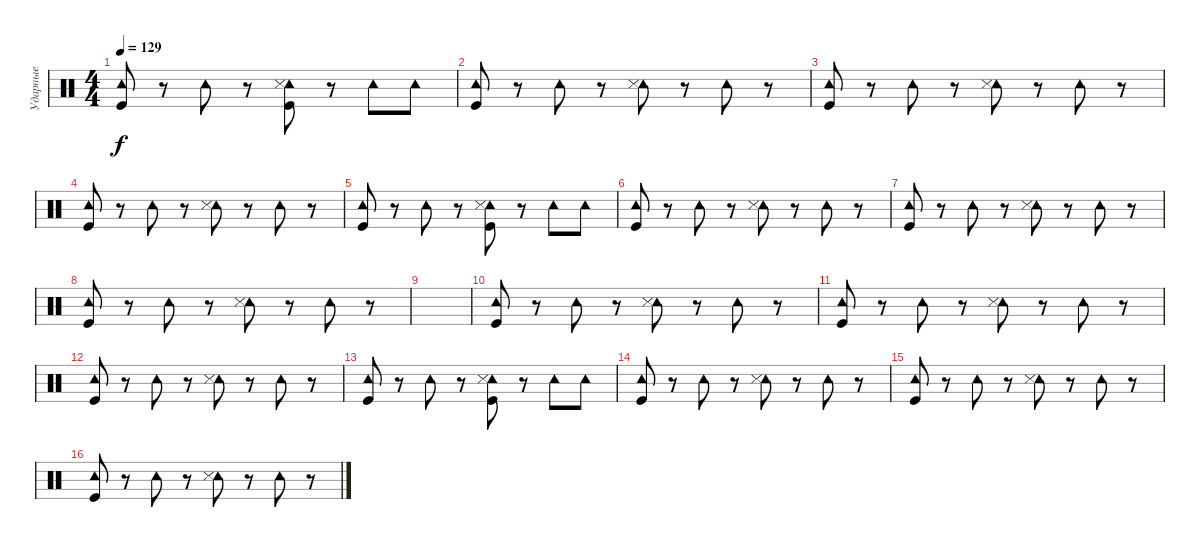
\track ("Ударные" "Ударные") {instrument percussion}
\staff {score}
\articulation defaults
\ts (4 4)
\tempo 129
\clef neutral
\ks c
("Tambourine (hit)" "Kick (hit)").8{dy f} r.8 "Tambourine (hit)".8 r.8 ("Tambourine (hit)" "Snare (side stick) 3" "Kick (hit)").8 r.8 "Tambourine (hit)".8 "Tambourine (hit)".8 |
("Tambourine (hit)" "Kick (hit)").8 r.8 "Tambourine (hit)".8 r.8 ("Tambourine (hit)" "Snare (side stick) 3").8 r.8 "Tambourine (hit)".8 r.8 |
("Tambourine (hit)" "Kick (hit)").8 r.8 "Tambourine (hit)".8 r.8 ("Tambourine (hit)" "Snare (side stick) 3").8 r.8 "Tambourine (hit)".8 r.8 |
("Tambourine (hit)" "Kick (hit)").8 r.8 "Tambourine (hit)".8 r.8 ("Tambourine (hit)" "Snare (side stick) 3").8 r.8 "Tambourine (hit)".8 r.8 |
("Tambourine (hit)" "Kick (hit)").8 r.8 "Tambourine (hit)".8 r.8 ("Tambourine (hit)" "Snare (side stick) 3" "Kick (hit)").8 r.8 "Tambourine (hit)".8 "Tambourine (hit)".8 |
("Tambourine (hit)" "Kick (hit)").8 r.8 "Tambourine (hit)".8 r.8 ("Tambourine (hit)" "Snare (side stick) 3").8 r.8 "Tambourine (hit)".8 r.8 |
("Tambourine (hit)" "Kick (hit)").8 r.8 "Tambourine (hit)".8 r.8 ("Tambourine (hit)" "Snare (side stick) 3").8 r.8 "Tambourine (hit)".8 r.8 |
("Tambourine (hit)" "Kick (hit)").8 r.8 "Tambourine (hit)".8 r.8 ("Tambourine (hit)" "Snare (side stick) 3").8 r.8 "Tambourine (hit)".8 r.8 |
|
("Tambourine (hit)" "Kick (hit)").8 r.8 "Tambourine (hit)".8 r.8 ("Tambourine (hit)" "Snare (side stick) 3").8 r.8 "Tambourine (hit)".8 r.8 |
("Tambourine (hit)" "Kick (hit)").8 r.8 "Tambourine (hit)".8 r.8 ("Tambourine (hit)" "Snare (side stick) 3").8 r.8 "Tambourine (hit)".8 r.8 |
("Tambourine (hit)" "Kick (hit)").8 r.8 "Tambourine (hit)".8 r.8 ("Tambourine (hit)" "Snare (side stick) 3").8 r.8 "Tambourine (hit)".8 r.8 |
("Tambourine (hit)" "Kick (hit)").8 r.8 "Tambourine (hit)".8 r.8 ("Tambourine (hit)" "Snare (side stick) 3" "Kick (hit)").8 r.8 "Tambourine (hit)".8 "Tambourine (hit)".8 |
("Tambourine (hit)" "Kick (hit)").8 r.8 "Tambourine (hit)".8 r.8 ("Tambourine (hit)" "Snare (side stick) 3").8 r.8 "Tambourine (hit)".8 r.8 |
("Tambourine (hit)" "Kick (hit)").8 r.8 "Tambourine (hit)".8 r.8 ("Tambourine (hit)" "Snare (side stick) 3").8 r.8 "Tambourine (hit)".8 r.8 |
("Tambourine (hit)" "Kick (hit)").8 r.8 "Tambourine (hit)".8 r.8 ("Tambourine (hit)" "Snare (side stick) 3").8 r.8 "Tambourine (hit)".8 r.8
